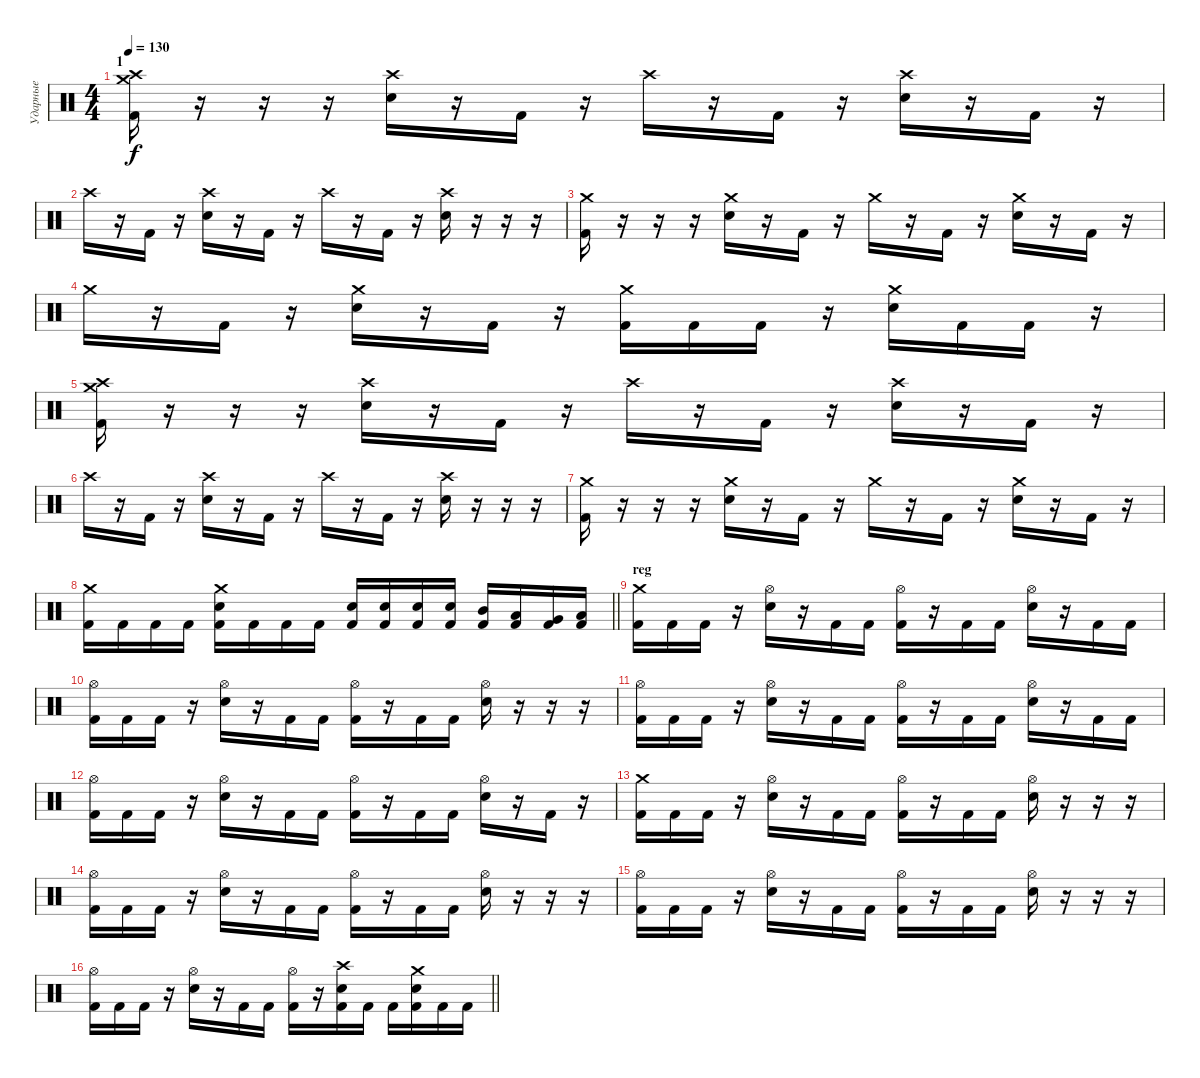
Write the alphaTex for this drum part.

\track ("Ударные" "Ударные") {instrument percussion}
\staff {score}
\articulation defaults
\ts (4 4)
\section ("" "1")
\tempo 130
\clef neutral
\ks c
("Crash high (hit)" "Crash medium (hit)" "Kick (hit) 2").16{dy f} r.16 r.16 r.16 ("Crash high (hit)" "Snare (hit) 2").16 r.16 "Kick (hit) 2".16 r.16 "Crash high (hit)".16 r.16 "Kick (hit) 2".16 r.16 ("Crash high (hit)" "Snare (hit) 2").16 r.16 "Kick (hit) 2".16 r.16 |
"Crash high (hit)".16 r.16 "Kick (hit) 2".16 r.16 ("Crash high (hit)" "Snare (hit) 2").16 r.16 "Kick (hit) 2".16 r.16 "Crash high (hit)".16 r.16 "Kick (hit) 2".16 r.16 ("Crash high (hit)" "Snare (hit) 2").16 r.16 r.16 r.16 |
("Crash medium (hit)" "Kick (hit) 2").16 r.16 r.16 r.16 ("Crash medium (hit)" "Snare (hit) 2").16 r.16 "Kick (hit) 2".16 r.16 "Crash medium (hit)".16 r.16 "Kick (hit) 2".16 r.16 ("Crash medium (hit)" "Snare (hit) 2").16 r.16 "Kick (hit) 2".16 r.16 |
"Crash medium (hit)".16 r.16 "Kick (hit) 2".16 r.16 ("Crash medium (hit)" "Snare (hit) 2").16 r.16 "Kick (hit) 2".16 r.16 ("Crash medium (hit)" "Kick (hit) 2").16 "Kick (hit) 2".16 "Kick (hit) 2".16 r.16 ("Crash medium (hit)" "Snare (hit) 2").16 "Kick (hit) 2".16 "Kick (hit) 2".16 r.16 |
("Crash high (hit)" "Crash medium (hit)" "Kick (hit) 2").16 r.16 r.16 r.16 ("Crash high (hit)" "Snare (hit) 2").16 r.16 "Kick (hit) 2".16 r.16 "Crash high (hit)".16 r.16 "Kick (hit) 2".16 r.16 ("Crash high (hit)" "Snare (hit) 2").16 r.16 "Kick (hit) 2".16 r.16 |
"Crash high (hit)".16 r.16 "Kick (hit) 2".16 r.16 ("Crash high (hit)" "Snare (hit) 2").16 r.16 "Kick (hit) 2".16 r.16 "Crash high (hit)".16 r.16 "Kick (hit) 2".16 r.16 ("Crash high (hit)" "Snare (hit) 2").16 r.16 r.16 r.16 |
("Crash medium (hit)" "Kick (hit) 2").16 r.16 r.16 r.16 ("Crash medium (hit)" "Snare (hit) 2").16 r.16 "Kick (hit) 2".16 r.16 "Crash medium (hit)".16 r.16 "Kick (hit) 2".16 r.16 ("Crash medium (hit)" "Snare (hit) 2").16 r.16 "Kick (hit) 2".16 r.16 |
\barLineRight lightlight
("Crash medium (hit)" "Kick (hit) 2").16 "Kick (hit) 2".16 "Kick (hit) 2".16 "Kick (hit) 2".16 ("Crash medium (hit)" "Snare (hit) 2" "Kick (hit) 2").16 "Kick (hit) 2".16 "Kick (hit) 2".16 "Kick (hit) 2".16 ("Snare (hit) 2" "Kick (hit) 2").16 ("Snare (hit) 2" "Kick (hit) 2").16 ("Snare (hit) 2" "Kick (hit) 2").16 ("Snare (hit) 2" "Kick (hit) 2").16 ("Mid Tom (hit)" "Kick (hit) 2").16 ("Low Tom (hit)" "Kick (hit) 2").16 ("Very Low Tom (hit)" "Kick (hit) 2").16 ("Low Floor Tom (hit)" "Kick (hit) 2").16 |
\section ("" "reg")
("Crash medium (hit)" "Kick (hit) 2").16 "Kick (hit) 2".16 "Kick (hit) 2".16 r.16 ("Hi-Hat (open)" "Snare (hit) 2").16 r.16 "Kick (hit) 2".16 "Kick (hit) 2".16 ("Hi-Hat (open)" "Kick (hit) 2").16 r.16 "Kick (hit) 2".16 "Kick (hit) 2".16 ("Hi-Hat (open)" "Snare (hit) 2").16 r.16 "Kick (hit) 2".16 "Kick (hit) 2".16 |
("Hi-Hat (open)" "Kick (hit) 2").16 "Kick (hit) 2".16 "Kick (hit) 2".16 r.16 ("Hi-Hat (open)" "Snare (hit) 2").16 r.16 "Kick (hit) 2".16 "Kick (hit) 2".16 ("Hi-Hat (open)" "Kick (hit) 2").16 r.16 "Kick (hit) 2".16 "Kick (hit) 2".16 ("Hi-Hat (open)" "Snare (hit) 2").16 r.16 r.16 r.16 |
("Hi-Hat (open)" "Kick (hit) 2").16 "Kick (hit) 2".16 "Kick (hit) 2".16 r.16 ("Hi-Hat (open)" "Snare (hit) 2").16 r.16 "Kick (hit) 2".16 "Kick (hit) 2".16 ("Hi-Hat (open)" "Kick (hit) 2").16 r.16 "Kick (hit) 2".16 "Kick (hit) 2".16 ("Hi-Hat (open)" "Snare (hit) 2").16 r.16 "Kick (hit) 2".16 "Kick (hit) 2".16 |
("Hi-Hat (open)" "Kick (hit) 2").16 "Kick (hit) 2".16 "Kick (hit) 2".16 r.16 ("Hi-Hat (open)" "Snare (hit) 2").16 r.16 "Kick (hit) 2".16 "Kick (hit) 2".16 ("Hi-Hat (open)" "Kick (hit) 2").16 r.16 "Kick (hit) 2".16 "Kick (hit) 2".16 ("Hi-Hat (open)" "Snare (hit) 2").16 r.16 "Kick (hit) 2".16 r.16 |
("Crash medium (hit)" "Kick (hit) 2").16 "Kick (hit) 2".16 "Kick (hit) 2".16 r.16 ("Hi-Hat (open)" "Snare (hit) 2").16 r.16 "Kick (hit) 2".16 "Kick (hit) 2".16 ("Hi-Hat (open)" "Kick (hit) 2").16 r.16 "Kick (hit) 2".16 "Kick (hit) 2".16 ("Hi-Hat (open)" "Snare (hit) 2").16 r.16 r.16 r.16 |
("Hi-Hat (open)" "Kick (hit) 2").16 "Kick (hit) 2".16 "Kick (hit) 2".16 r.16 ("Hi-Hat (open)" "Snare (hit) 2").16 r.16 "Kick (hit) 2".16 "Kick (hit) 2".16 ("Hi-Hat (open)" "Kick (hit) 2").16 r.16 "Kick (hit) 2".16 "Kick (hit) 2".16 ("Hi-Hat (open)" "Snare (hit) 2").16 r.16 r.16 r.16 |
("Hi-Hat (open)" "Kick (hit) 2").16 "Kick (hit) 2".16 "Kick (hit) 2".16 r.16 ("Hi-Hat (open)" "Snare (hit) 2").16 r.16 "Kick (hit) 2".16 "Kick (hit) 2".16 ("Hi-Hat (open)" "Kick (hit) 2").16 r.16 "Kick (hit) 2".16 "Kick (hit) 2".16 ("Hi-Hat (open)" "Snare (hit) 2").16 r.16 r.16 r.16 |
\barLineRight lightlight
("Hi-Hat (open)" "Kick (hit) 2").16 "Kick (hit) 2".16 "Kick (hit) 2".16 r.16 ("Hi-Hat (open)" "Snare (hit) 2").16 r.16 "Kick (hit) 2".16 "Kick (hit) 2".16 ("Hi-Hat (open)" "Kick (hit) 2").16 r.16 ("Crash high (hit)" "Snare (hit) 2" "Kick (hit) 2").16 "Kick (hit) 2".16 "Kick (hit) 2".16 ("Crash medium (hit)" "Snare (hit) 2" "Kick (hit) 2").16 "Kick (hit) 2".16 "Kick (hit) 2".16
